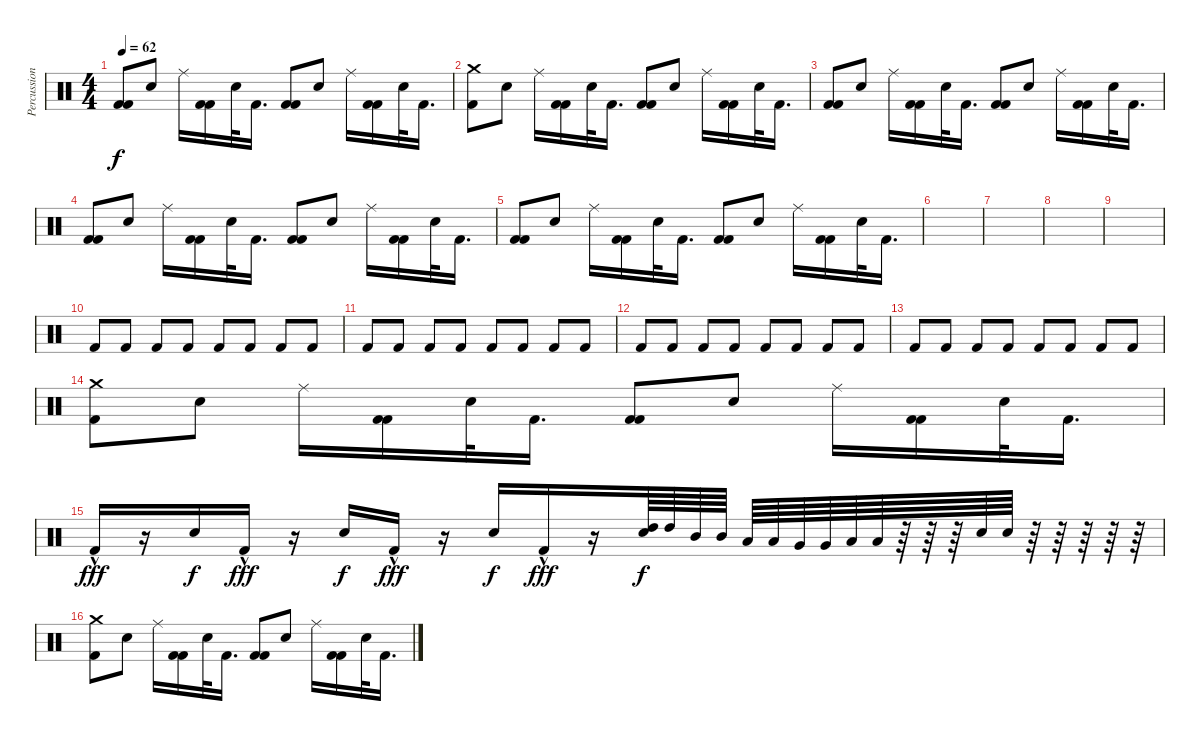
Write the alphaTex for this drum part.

\track ("Percussion" "Percussion") {instrument percussion}
\staff {score}
\articulation defaults
\ts (4 4)
\tempo 62
\clef neutral
\ks c
("Kick (hit) 2" "Kick (hit) 2").8{dy f} "Electric Snare (hit)".8 "Ride (middle)".16 ("Kick (hit) 2" "Kick (hit) 2").16 "Electric Snare (hit)".32 "Kick (hit) 2".16{d} ("Kick (hit) 2" "Kick (hit) 2").8 "Electric Snare (hit)".8 "Ride (middle)".16 ("Kick (hit) 2" "Kick (hit) 2").16 "Electric Snare (hit)".32 "Kick (hit) 2".16{d} |
("Kick (hit) 2" "Crash medium (hit)").8 "Electric Snare (hit)".8 "Ride (middle)".16 ("Kick (hit) 2" "Kick (hit) 2").16 "Electric Snare (hit)".32 "Kick (hit) 2".16{d} ("Kick (hit) 2" "Kick (hit) 2").8 "Electric Snare (hit)".8 "Ride (middle)".16 ("Kick (hit) 2" "Kick (hit) 2").16 "Electric Snare (hit)".32 "Kick (hit) 2".16{d} |
("Kick (hit) 2" "Kick (hit) 2").8 "Electric Snare (hit)".8 "Ride (middle)".16 ("Kick (hit) 2" "Kick (hit) 2").16 "Electric Snare (hit)".32 "Kick (hit) 2".16{d} ("Kick (hit) 2" "Kick (hit) 2").8 "Electric Snare (hit)".8 "Ride (middle)".16 ("Kick (hit) 2" "Kick (hit) 2").16 "Electric Snare (hit)".32 "Kick (hit) 2".16{d} |
("Kick (hit) 2" "Kick (hit) 2").8 "Electric Snare (hit)".8 "Ride (middle)".16 ("Kick (hit) 2" "Kick (hit) 2").16 "Electric Snare (hit)".32 "Kick (hit) 2".16{d} ("Kick (hit) 2" "Kick (hit) 2").8 "Electric Snare (hit)".8 "Ride (middle)".16 ("Kick (hit) 2" "Kick (hit) 2").16 "Electric Snare (hit)".32 "Kick (hit) 2".16{d} |
("Kick (hit) 2" "Kick (hit) 2").8 "Electric Snare (hit)".8 "Ride (middle)".16 ("Kick (hit) 2" "Kick (hit) 2").16 "Electric Snare (hit)".32 "Kick (hit) 2".16{d} ("Kick (hit) 2" "Kick (hit) 2").8 "Electric Snare (hit)".8 "Ride (middle)".16 ("Kick (hit) 2" "Kick (hit) 2").16 "Electric Snare (hit)".32 "Kick (hit) 2".16{d} |
|
|
|
|
"Kick (hit) 2".8 "Kick (hit) 2".8 "Kick (hit) 2".8 "Kick (hit) 2".8 "Kick (hit) 2".8 "Kick (hit) 2".8 "Kick (hit) 2".8 "Kick (hit) 2".8 |
"Kick (hit) 2".8 "Kick (hit) 2".8 "Kick (hit) 2".8 "Kick (hit) 2".8 "Kick (hit) 2".8 "Kick (hit) 2".8 "Kick (hit) 2".8 "Kick (hit) 2".8 |
"Kick (hit) 2".8 "Kick (hit) 2".8 "Kick (hit) 2".8 "Kick (hit) 2".8 "Kick (hit) 2".8 "Kick (hit) 2".8 "Kick (hit) 2".8 "Kick (hit) 2".8 |
"Kick (hit) 2".8 "Kick (hit) 2".8 "Kick (hit) 2".8 "Kick (hit) 2".8 "Kick (hit) 2".8 "Kick (hit) 2".8 "Kick (hit) 2".8 "Kick (hit) 2".8 |
("Kick (hit) 2" "Crash medium (hit)").8 "Electric Snare (hit)".8 "Ride (middle)".16 ("Kick (hit) 2" "Kick (hit) 2").16 "Electric Snare (hit)".32 "Kick (hit) 2".16{d} ("Kick (hit) 2" "Kick (hit) 2").8 "Electric Snare (hit)".8 "Ride (middle)".16 ("Kick (hit) 2" "Kick (hit) 2").16 "Electric Snare (hit)".32 "Kick (hit) 2".16{d} |
"Kick (hit) 2"{hac}.16{dy fff} r.16 "Electric Snare (hit)".16{dy f} "Kick (hit) 2"{hac}.16{dy fff} r.16 "Electric Snare (hit)".16{dy f} "Kick (hit) 2"{hac}.16{dy fff} r.16 "Electric Snare (hit)".16{dy f} "Kick (hit) 2"{hac}.16{dy fff} r.16 ("Electric Snare (hit)" "High Tom (hit)").64{dy f} "High Tom (hit)".64 "Mid Tom (hit)".64 "Mid Tom (hit)".64 "Low Tom (hit)".64 "Low Tom (hit)".64 "Very Low Tom (hit)".64 "Very Low Tom (hit)".64 "Low Floor Tom (hit)".64 "Low Floor Tom (hit)".64 r.64 r.64 r.64 "Electric Snare (hit)".64 "Electric Snare (hit)".64 r.64 r.64 r.64 r.64 r.64 |
("Kick (hit) 2" "Crash medium (hit)").8 "Electric Snare (hit)".8 "Ride (middle)".16 ("Kick (hit) 2" "Kick (hit) 2").16 "Electric Snare (hit)".32 "Kick (hit) 2".16{d} ("Kick (hit) 2" "Kick (hit) 2").8 "Electric Snare (hit)".8 "Ride (middle)".16 ("Kick (hit) 2" "Kick (hit) 2").16 "Electric Snare (hit)".32 "Kick (hit) 2".16{d}
